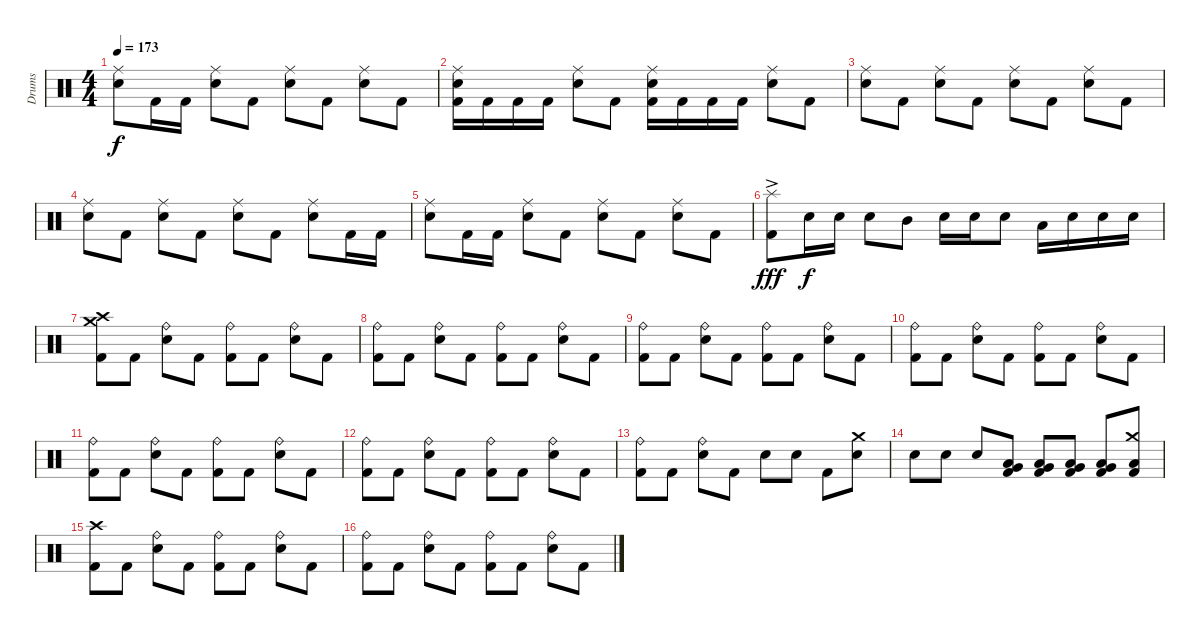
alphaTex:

\track ("Drums" "Drums") {instrument percussion}
\staff {score}
\articulation defaults
\ts (4 4)
\tempo 173
\clef neutral
\ks c
("Ride (middle)" "Snare (hit) 2").8{dy f} "Kick (hit) 2".16 "Kick (hit) 2".16 ("Ride (middle)" "Snare (hit) 2").8 "Kick (hit) 2".8 ("Ride (middle)" "Snare (hit) 2").8 "Kick (hit) 2".8 ("Ride (middle)" "Snare (hit) 2").8 "Kick (hit) 2".8 |
("Ride (middle)" "Snare (hit) 2" "Kick (hit) 2").16 "Kick (hit) 2".16 "Kick (hit) 2".16 "Kick (hit) 2".16 ("Ride (middle)" "Snare (hit) 2").8 "Kick (hit) 2".8 ("Ride (middle)" "Snare (hit) 2" "Kick (hit) 2").16 "Kick (hit) 2".16 "Kick (hit) 2".16 "Kick (hit) 2".16 ("Ride (middle)" "Snare (hit) 2").8 "Kick (hit) 2".8 |
("Ride (middle)" "Snare (hit) 2").8 "Kick (hit) 2".8 ("Ride (middle)" "Snare (hit) 2").8 "Kick (hit) 2".8 ("Ride (middle)" "Snare (hit) 2").8 "Kick (hit) 2".8 ("Ride (middle)" "Snare (hit) 2").8 "Kick (hit) 2".8 |
("Ride (middle)" "Snare (hit) 2").8 "Kick (hit) 2".8 ("Ride (middle)" "Snare (hit) 2").8 "Kick (hit) 2".8 ("Ride (middle)" "Snare (hit) 2").8 "Kick (hit) 2".8 ("Ride (middle)" "Snare (hit) 2").8 "Kick (hit) 2".16 "Kick (hit) 2".16 |
("Ride (middle)" "Snare (hit) 2").8 "Kick (hit) 2".16 "Kick (hit) 2".16 ("Ride (middle)" "Snare (hit) 2").8 "Kick (hit) 2".8 ("Ride (middle)" "Snare (hit) 2").8 "Kick (hit) 2".8 ("Ride (middle)" "Snare (hit) 2").8 "Kick (hit) 2".8 |
("Splash (hit)"{ac} "Kick (hit) 2").8{dy fff} "Snare (hit) 2".16{dy f} "Snare (hit) 2".16 "Snare (hit) 2".8 "Mid Tom (hit)".8 "Snare (hit) 2".16 "Snare (hit) 2".16 "Snare (hit) 2".8 "Low Tom (hit)".16 "Snare (hit) 2".16 "Snare (hit) 2".16 "Snare (hit) 2".16 |
("Crash high (hit)" "Crash medium (hit)" "Kick (hit) 2").8 "Kick (hit) 2".8 ("Ride (bell)" "Snare (hit) 2").8 "Kick (hit) 2".8 ("Ride (bell)" "Kick (hit) 2").8 "Kick (hit) 2".8 ("Ride (bell)" "Snare (hit) 2").8 "Kick (hit) 2".8 |
("Ride (bell)" "Kick (hit) 2").8 "Kick (hit) 2".8 ("Ride (bell)" "Snare (hit) 2").8 "Kick (hit) 2".8 ("Ride (bell)" "Kick (hit) 2").8 "Kick (hit) 2".8 ("Ride (bell)" "Snare (hit) 2").8 "Kick (hit) 2".8 |
("Ride (bell)" "Kick (hit) 2").8 "Kick (hit) 2".8 ("Ride (bell)" "Snare (hit) 2").8 "Kick (hit) 2".8 ("Ride (bell)" "Kick (hit) 2").8 "Kick (hit) 2".8 ("Ride (bell)" "Snare (hit) 2").8 "Kick (hit) 2".8 |
("Ride (bell)" "Kick (hit) 2").8 "Kick (hit) 2".8 ("Ride (bell)" "Snare (hit) 2").8 "Kick (hit) 2".8 ("Ride (bell)" "Kick (hit) 2").8 "Kick (hit) 2".8 ("Ride (bell)" "Snare (hit) 2").8 "Kick (hit) 2".8 |
("Ride (bell)" "Kick (hit) 2").8 "Kick (hit) 2".8 ("Ride (bell)" "Snare (hit) 2").8 "Kick (hit) 2".8 ("Ride (bell)" "Kick (hit) 2").8 "Kick (hit) 2".8 ("Ride (bell)" "Snare (hit) 2").8 "Kick (hit) 2".8 |
("Ride (bell)" "Kick (hit) 2").8 "Kick (hit) 2".8 ("Ride (bell)" "Snare (hit) 2").8 "Kick (hit) 2".8 ("Ride (bell)" "Kick (hit) 2").8 "Kick (hit) 2".8 ("Ride (bell)" "Snare (hit) 2").8 "Kick (hit) 2".8 |
("Ride (bell)" "Kick (hit) 2").8 "Kick (hit) 2".8 ("Ride (bell)" "Snare (hit) 2").8 "Kick (hit) 2".8 "Snare (hit) 2".8 "Snare (hit) 2".8 "Kick (hit) 2".8 ("Crash medium (hit)" "Snare (hit) 2").8 |
"Snare (hit) 2".8 "Snare (hit) 2".8 "Snare (hit) 2".8 ("Very Low Tom (hit)" "Low Floor Tom (hit)" "Kick (hit) 2").8 ("Very Low Tom (hit)" "Low Floor Tom (hit)" "Kick (hit) 2").8 ("Very Low Tom (hit)" "Low Floor Tom (hit)" "Kick (hit) 2").8 ("Very Low Tom (hit)" "Low Floor Tom (hit)" "Kick (hit) 2").8 ("Crash medium (hit)" "Low Floor Tom (hit)" "Kick (hit) 2").8 |
("Crash high (hit)" "Kick (hit) 2").8 "Kick (hit) 2".8 ("Ride (bell)" "Snare (hit) 2").8 "Kick (hit) 2".8 ("Ride (bell)" "Kick (hit) 2").8 "Kick (hit) 2".8 ("Ride (bell)" "Snare (hit) 2").8 "Kick (hit) 2".8 |
("Ride (bell)" "Kick (hit) 2").8 "Kick (hit) 2".8 ("Ride (bell)" "Snare (hit) 2").8 "Kick (hit) 2".8 ("Ride (bell)" "Kick (hit) 2").8 "Kick (hit) 2".8 ("Ride (bell)" "Snare (hit) 2").8 "Kick (hit) 2".8
